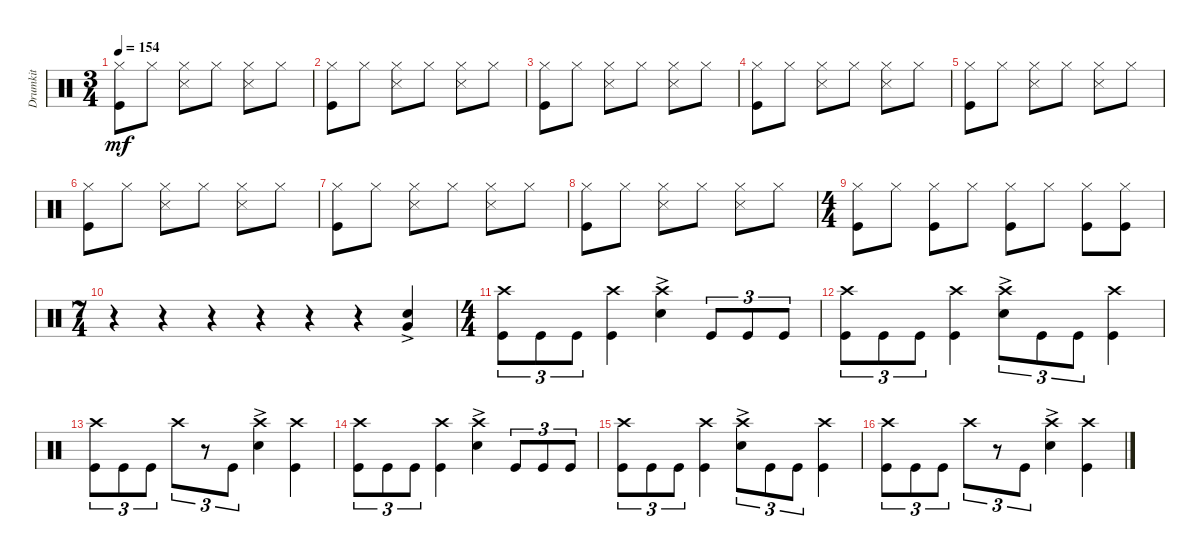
\track ("Drumkit" "Drumkit") {instrument percussion}
\staff {score}
\articulation defaults
\ts (3 4)
\tempo 154
\clef neutral
\ks c
("Kick (hit)" "Hi-Hat (closed)").8{dy mf} "Hi-Hat (closed)".8 ("Hi-Hat (closed)" "Snare (side stick) 3").8 "Hi-Hat (closed)".8 ("Hi-Hat (closed)" "Snare (side stick) 3").8 "Hi-Hat (closed)".8 |
("Kick (hit)" "Hi-Hat (closed)").8 "Hi-Hat (closed)".8 ("Hi-Hat (closed)" "Snare (side stick) 3").8 "Hi-Hat (closed)".8 ("Hi-Hat (closed)" "Snare (side stick) 3").8 "Hi-Hat (closed)".8 |
("Kick (hit)" "Hi-Hat (closed)").8 "Hi-Hat (closed)".8 ("Hi-Hat (closed)" "Snare (side stick) 3").8 "Hi-Hat (closed)".8 ("Hi-Hat (closed)" "Snare (side stick) 3").8 "Hi-Hat (closed)".8 |
("Kick (hit)" "Hi-Hat (closed)").8 "Hi-Hat (closed)".8 ("Hi-Hat (closed)" "Snare (side stick) 3").8 "Hi-Hat (closed)".8 ("Hi-Hat (closed)" "Snare (side stick) 3").8 "Hi-Hat (closed)".8 |
("Kick (hit)" "Hi-Hat (closed)").8 "Hi-Hat (closed)".8 ("Hi-Hat (closed)" "Snare (side stick) 3").8 "Hi-Hat (closed)".8 ("Hi-Hat (closed)" "Snare (side stick) 3").8 "Hi-Hat (closed)".8 |
("Kick (hit)" "Hi-Hat (closed)").8 "Hi-Hat (closed)".8 ("Hi-Hat (closed)" "Snare (side stick) 3").8 "Hi-Hat (closed)".8 ("Hi-Hat (closed)" "Snare (side stick) 3").8 "Hi-Hat (closed)".8 |
("Kick (hit)" "Hi-Hat (closed)").8 "Hi-Hat (closed)".8 ("Hi-Hat (closed)" "Snare (side stick) 3").8 "Hi-Hat (closed)".8 ("Hi-Hat (closed)" "Snare (side stick) 3").8 "Hi-Hat (closed)".8 |
("Kick (hit)" "Hi-Hat (closed)").8 "Hi-Hat (closed)".8 ("Hi-Hat (closed)" "Snare (side stick) 3").8 "Hi-Hat (closed)".8 ("Hi-Hat (closed)" "Snare (side stick) 3").8 "Hi-Hat (closed)".8 |
\ts (4 4)
("Kick (hit)" "Hi-Hat (closed)").8 "Hi-Hat (closed)".8 ("Hi-Hat (closed)" "Kick (hit)").8 "Hi-Hat (closed)".8 ("Hi-Hat (closed)" "Kick (hit)").8 "Hi-Hat (closed)".8 ("Hi-Hat (closed)" "Kick (hit)").8 ("Hi-Hat (closed)" "Kick (hit)").8 |
\ts (7 4)
r.4 r.4 r.4 r.4 r.4 r.4 ("Very Low Tom (hit)" "Snare (hit) 2"{ac}).4 |
\ts (4 4)
("Crash high (hit)" "Kick (hit)").8{tu (3 2)} "Kick (hit)".8{tu (3 2)} "Kick (hit)".8{tu (3 2)} ("Crash high (hit)" "Kick (hit)").4 ("Crash high (hit)" "Snare (hit) 2"{ac}).4 "Kick (hit)".8{tu (3 2)} "Kick (hit)".8{tu (3 2)} "Kick (hit)".8{tu (3 2)} |
("Crash high (hit)" "Kick (hit)").8{tu (3 2)} "Kick (hit)".8{tu (3 2)} "Kick (hit)".8{tu (3 2)} ("Crash high (hit)" "Kick (hit)").4 ("Crash high (hit)" "Snare (hit) 2"{ac}).8{tu (3 2)} "Kick (hit)".8{tu (3 2)} "Kick (hit)".8{tu (3 2)} ("Kick (hit)" "Crash high (hit)").4 |
("Kick (hit)" "Crash high (hit)").8{tu (3 2)} "Kick (hit)".8{tu (3 2)} "Kick (hit)".8{tu (3 2)} "Crash high (hit)".8{tu (3 2)} r.8{tu (3 2)} "Kick (hit)".8{tu (3 2)} ("Crash high (hit)" "Snare (hit) 2"{ac}).4 ("Crash high (hit)" "Kick (hit)").4 |
("Crash high (hit)" "Kick (hit)").8{tu (3 2)} "Kick (hit)".8{tu (3 2)} "Kick (hit)".8{tu (3 2)} ("Crash high (hit)" "Kick (hit)").4 ("Crash high (hit)" "Snare (hit) 2"{ac}).4 "Kick (hit)".8{tu (3 2)} "Kick (hit)".8{tu (3 2)} "Kick (hit)".8{tu (3 2)} |
("Crash high (hit)" "Kick (hit)").8{tu (3 2)} "Kick (hit)".8{tu (3 2)} "Kick (hit)".8{tu (3 2)} ("Crash high (hit)" "Kick (hit)").4 ("Crash high (hit)" "Snare (hit) 2"{ac}).8{tu (3 2)} "Kick (hit)".8{tu (3 2)} "Kick (hit)".8{tu (3 2)} ("Kick (hit)" "Crash high (hit)").4 |
("Kick (hit)" "Crash high (hit)").8{tu (3 2)} "Kick (hit)".8{tu (3 2)} "Kick (hit)".8{tu (3 2)} "Crash high (hit)".8{tu (3 2)} r.8{tu (3 2)} "Kick (hit)".8{tu (3 2)} ("Crash high (hit)" "Snare (hit) 2"{ac}).4 ("Crash high (hit)" "Kick (hit)").4
